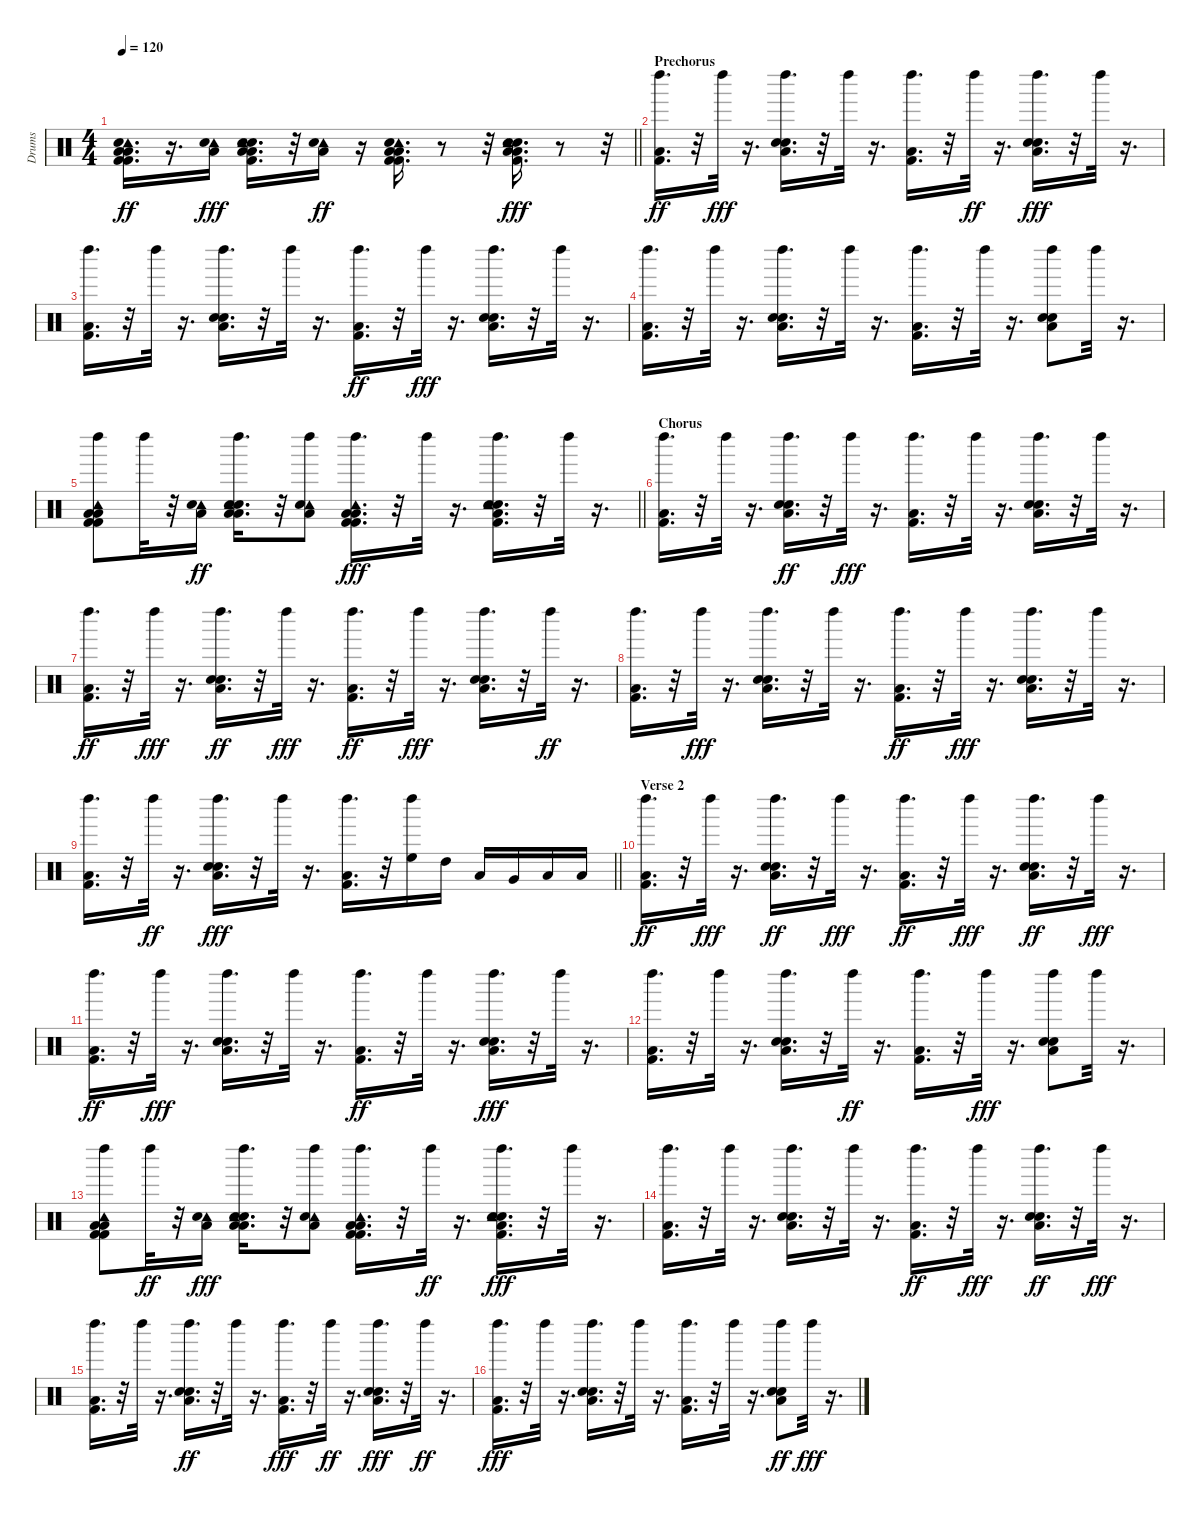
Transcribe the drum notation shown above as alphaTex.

\track ("Drums" "Drums") {instrument percussion}
\staff {score}
\articulation defaults
\ts (4 4)
\tempo 120
\clef neutral
\barLineRight lightlight
\ks c
("Low Floor Tom (hit)" "Kick (hit) 2" "Tambourine (hit)" "Low Floor Tom (hit)" "Kick (hit) 2" "Snare (hit) 2").16{d dy ff} r.16{d} ("Tambourine (hit)" "Low Floor Tom (hit)" "Snare (hit) 2").16{dy fff} ("Electric Snare (hit)" "Low Floor Tom (hit)" "Snare (hit) 2" "Tambourine (hit)" "Low Floor Tom (hit)" "Kick (hit) 2").16{d} r.32 ("Tambourine (hit)" "Low Floor Tom (hit)" "Snare (hit) 2").16{dy ff} r.16 ("Low Floor Tom (hit)" "Kick (hit) 2" "Tambourine (hit)" "Low Floor Tom (hit)" "Kick (hit) 2" "Snare (hit) 2").16{d} r.8 r.32 ("Electric Snare (hit)" "Low Floor Tom (hit)" "Snare (hit) 2" "Tambourine (hit)" "Kick (hit) 2" "Low Floor Tom (hit)").16{d dy fff} r.8 r.32 |
\section ("" "Prechorus")
("Left Maraca (hit)" "Low Floor Tom (hit)" "Kick (hit) 2").16{d dy ff} r.32 "Left Maraca (hit)".32{dy fff} r.16{d} ("Left Maraca (hit)" "Electric Snare (hit)" "Low Floor Tom (hit)" "Snare (hit) 2").16{d} r.32 "Left Maraca (hit)".32 r.16{d} ("Left Maraca (hit)" "Low Floor Tom (hit)" "Kick (hit) 2").16{d} r.32 "Left Maraca (hit)".32{dy ff} r.16{d} ("Left Maraca (hit)" "Electric Snare (hit)" "Low Floor Tom (hit)" "Snare (hit) 2").16{d dy fff} r.32 "Left Maraca (hit)".32 r.16{d} |
("Left Maraca (hit)" "Low Floor Tom (hit)" "Kick (hit) 2").16{d} r.32 "Left Maraca (hit)".32 r.16{d} ("Left Maraca (hit)" "Electric Snare (hit)" "Low Floor Tom (hit)" "Snare (hit) 2").16{d} r.32 "Left Maraca (hit)".32 r.16{d} ("Left Maraca (hit)" "Low Floor Tom (hit)" "Kick (hit) 2").16{d dy ff} r.32 "Left Maraca (hit)".32{dy fff} r.16{d} ("Left Maraca (hit)" "Electric Snare (hit)" "Low Floor Tom (hit)" "Snare (hit) 2").16{d} r.32 "Left Maraca (hit)".32 r.16{d} |
("Left Maraca (hit)" "Low Floor Tom (hit)" "Kick (hit) 2").16{d} r.32 "Left Maraca (hit)".32 r.16{d} ("Left Maraca (hit)" "Electric Snare (hit)" "Low Floor Tom (hit)" "Snare (hit) 2").16{d} r.32 "Left Maraca (hit)".32 r.16{d} ("Left Maraca (hit)" "Low Floor Tom (hit)" "Kick (hit) 2").16{d} r.32 "Left Maraca (hit)".32 r.16{d} ("Left Maraca (hit)" "Electric Snare (hit)" "Low Floor Tom (hit)" "Snare (hit) 2").8 "Left Maraca (hit)".32 r.16{d} |
\barLineRight lightlight
("Left Maraca (hit)" "Low Floor Tom (hit)" "Kick (hit) 2" "Tambourine (hit)" "Low Floor Tom (hit)" "Kick (hit) 2").8 "Left Maraca (hit)".32 r.32 ("Tambourine (hit)" "Low Floor Tom (hit)" "Snare (hit) 2").16{dy ff} ("Left Maraca (hit)" "Electric Snare (hit)" "Low Floor Tom (hit)" "Snare (hit) 2" "Tambourine (hit)" "Low Floor Tom (hit)").16{d} r.32 ("Left Maraca (hit)" "Tambourine (hit)" "Low Floor Tom (hit)" "Snare (hit) 2").8 ("Left Maraca (hit)" "Low Floor Tom (hit)" "Kick (hit) 2" "Tambourine (hit)" "Low Floor Tom (hit)" "Kick (hit) 2").16{d dy fff} r.32 "Left Maraca (hit)".32 r.16{d} ("Left Maraca (hit)" "Electric Snare (hit)" "Low Floor Tom (hit)" "Snare (hit) 2" "Tambourine (hit)" "Kick (hit) 2").16{d} r.32 "Left Maraca (hit)".32 r.16{d} |
\section ("" "Chorus")
("Left Maraca (hit)" "Low Floor Tom (hit)" "Kick (hit) 2").16{d} r.32 "Left Maraca (hit)".32 r.16{d} ("Left Maraca (hit)" "Electric Snare (hit)" "Low Floor Tom (hit)" "Snare (hit) 2").16{d dy ff} r.32 "Left Maraca (hit)".32{dy fff} r.16{d} ("Left Maraca (hit)" "Low Floor Tom (hit)" "Kick (hit) 2").16{d} r.32 "Left Maraca (hit)".32 r.16{d} ("Left Maraca (hit)" "Electric Snare (hit)" "Low Floor Tom (hit)" "Snare (hit) 2").16{d} r.32 "Left Maraca (hit)".32 r.16{d} |
("Left Maraca (hit)" "Low Floor Tom (hit)" "Kick (hit) 2").16{d dy ff} r.32 "Left Maraca (hit)".32{dy fff} r.16{d} ("Left Maraca (hit)" "Electric Snare (hit)" "Low Floor Tom (hit)" "Snare (hit) 2").16{d dy ff} r.32 "Left Maraca (hit)".32{dy fff} r.16{d} ("Left Maraca (hit)" "Low Floor Tom (hit)" "Kick (hit) 2").16{d dy ff} r.32 "Left Maraca (hit)".32{dy fff} r.16{d} ("Left Maraca (hit)" "Electric Snare (hit)" "Low Floor Tom (hit)" "Snare (hit) 2").16{d} r.32 "Left Maraca (hit)".32{dy ff} r.16{d} |
("Left Maraca (hit)" "Low Floor Tom (hit)" "Kick (hit) 2").16{d} r.32 "Left Maraca (hit)".32{dy fff} r.16{d} ("Left Maraca (hit)" "Electric Snare (hit)" "Low Floor Tom (hit)" "Snare (hit) 2").16{d} r.32 "Left Maraca (hit)".32 r.16{d} ("Left Maraca (hit)" "Low Floor Tom (hit)" "Kick (hit) 2").16{d dy ff} r.32 "Left Maraca (hit)".32{dy fff} r.16{d} ("Left Maraca (hit)" "Electric Snare (hit)" "Low Floor Tom (hit)" "Snare (hit) 2").16{d} r.32 "Left Maraca (hit)".32 r.16{d} |
\barLineRight lightlight
("Left Maraca (hit)" "Low Floor Tom (hit)" "Kick (hit) 2").16{d} r.32 "Left Maraca (hit)".32{dy ff} r.16{d} ("Left Maraca (hit)" "Electric Snare (hit)" "Low Floor Tom (hit)" "Snare (hit) 2").16{d dy fff} r.32 "Left Maraca (hit)".32 r.16{d} ("Left Maraca (hit)" "Low Floor Tom (hit)" "Kick (hit) 2").16{d} r.32 ("High Floor Tom (hit)" "Left Maraca (hit)").16 "High Tom (hit)".16 "Low Tom (hit)".16 "Very Low Tom (hit)".16 "Low Floor Tom (hit)".16 "Low Floor Tom (hit)".16 |
\section ("" "Verse 2")
("Left Maraca (hit)" "Low Floor Tom (hit)" "Kick (hit) 2").16{d dy ff} r.32 "Left Maraca (hit)".32{dy fff} r.16{d} ("Left Maraca (hit)" "Electric Snare (hit)" "Low Floor Tom (hit)" "Snare (hit) 2").16{d dy ff} r.32 "Left Maraca (hit)".32{dy fff} r.16{d} ("Left Maraca (hit)" "Low Floor Tom (hit)" "Kick (hit) 2").16{d dy ff} r.32 "Left Maraca (hit)".32{dy fff} r.16{d} ("Left Maraca (hit)" "Electric Snare (hit)" "Low Floor Tom (hit)" "Snare (hit) 2").16{d dy ff} r.32 "Left Maraca (hit)".32{dy fff} r.16{d} |
("Left Maraca (hit)" "Low Floor Tom (hit)" "Kick (hit) 2").16{d dy ff} r.32 "Left Maraca (hit)".32{dy fff} r.16{d} ("Left Maraca (hit)" "Electric Snare (hit)" "Low Floor Tom (hit)" "Snare (hit) 2").16{d} r.32 "Left Maraca (hit)".32 r.16{d} ("Left Maraca (hit)" "Low Floor Tom (hit)" "Kick (hit) 2").16{d dy ff} r.32 "Left Maraca (hit)".32 r.16{d} ("Left Maraca (hit)" "Electric Snare (hit)" "Low Floor Tom (hit)" "Snare (hit) 2").16{d dy fff} r.32 "Left Maraca (hit)".32 r.16{d} |
("Left Maraca (hit)" "Low Floor Tom (hit)" "Kick (hit) 2").16{d} r.32 "Left Maraca (hit)".32 r.16{d} ("Left Maraca (hit)" "Electric Snare (hit)" "Low Floor Tom (hit)" "Snare (hit) 2").16{d} r.32 "Left Maraca (hit)".32{dy ff} r.16{d} ("Left Maraca (hit)" "Low Floor Tom (hit)" "Kick (hit) 2").16{d} r.32 "Left Maraca (hit)".32{dy fff} r.16{d} ("Left Maraca (hit)" "Electric Snare (hit)" "Low Floor Tom (hit)" "Snare (hit) 2").8 "Left Maraca (hit)".32 r.16{d} |
("Left Maraca (hit)" "Low Floor Tom (hit)" "Kick (hit) 2" "Tambourine (hit)" "Low Floor Tom (hit)" "Kick (hit) 2").8 "Left Maraca (hit)".32{dy ff} r.32 ("Tambourine (hit)" "Low Floor Tom (hit)" "Snare (hit) 2").16{dy fff} ("Left Maraca (hit)" "Electric Snare (hit)" "Low Floor Tom (hit)" "Snare (hit) 2" "Tambourine (hit)" "Low Floor Tom (hit)").16{d} r.32 ("Left Maraca (hit)" "Tambourine (hit)" "Low Floor Tom (hit)" "Snare (hit) 2").8 ("Left Maraca (hit)" "Low Floor Tom (hit)" "Kick (hit) 2" "Tambourine (hit)" "Low Floor Tom (hit)" "Kick (hit) 2").16{d} r.32 "Left Maraca (hit)".32{dy ff} r.16{d} ("Left Maraca (hit)" "Electric Snare (hit)" "Low Floor Tom (hit)" "Snare (hit) 2" "Tambourine (hit)" "Kick (hit) 2").16{d dy fff} r.32 "Left Maraca (hit)".32 r.16{d} |
("Left Maraca (hit)" "Low Floor Tom (hit)" "Kick (hit) 2").16{d} r.32 "Left Maraca (hit)".32 r.16{d} ("Left Maraca (hit)" "Electric Snare (hit)" "Low Floor Tom (hit)" "Snare (hit) 2").16{d} r.32 "Left Maraca (hit)".32 r.16{d} ("Left Maraca (hit)" "Low Floor Tom (hit)" "Kick (hit) 2").16{d dy ff} r.32 "Left Maraca (hit)".32{dy fff} r.16{d} ("Left Maraca (hit)" "Electric Snare (hit)" "Low Floor Tom (hit)" "Snare (hit) 2").16{d dy ff} r.32 "Left Maraca (hit)".32{dy fff} r.16{d} |
("Left Maraca (hit)" "Low Floor Tom (hit)" "Kick (hit) 2").16{d} r.32 "Left Maraca (hit)".32 r.16{d} ("Left Maraca (hit)" "Electric Snare (hit)" "Low Floor Tom (hit)" "Snare (hit) 2").16{d dy ff} r.32 "Left Maraca (hit)".32 r.16{d} ("Left Maraca (hit)" "Low Floor Tom (hit)" "Kick (hit) 2").16{d dy fff} r.32 "Left Maraca (hit)".32{dy ff} r.16{d} ("Left Maraca (hit)" "Electric Snare (hit)" "Low Floor Tom (hit)" "Snare (hit) 2").16{d dy fff} r.32 "Left Maraca (hit)".32{dy ff} r.16{d} |
("Left Maraca (hit)" "Low Floor Tom (hit)" "Kick (hit) 2").16{d dy fff} r.32 "Left Maraca (hit)".32 r.16{d} ("Left Maraca (hit)" "Electric Snare (hit)" "Low Floor Tom (hit)" "Snare (hit) 2").16{d} r.32 "Left Maraca (hit)".32 r.16{d} ("Left Maraca (hit)" "Low Floor Tom (hit)" "Kick (hit) 2").16{d} r.32 "Left Maraca (hit)".32 r.16{d} ("Left Maraca (hit)" "Electric Snare (hit)" "Low Floor Tom (hit)" "Snare (hit) 2").8{dy ff} "Left Maraca (hit)".32{dy fff} r.16{d}
